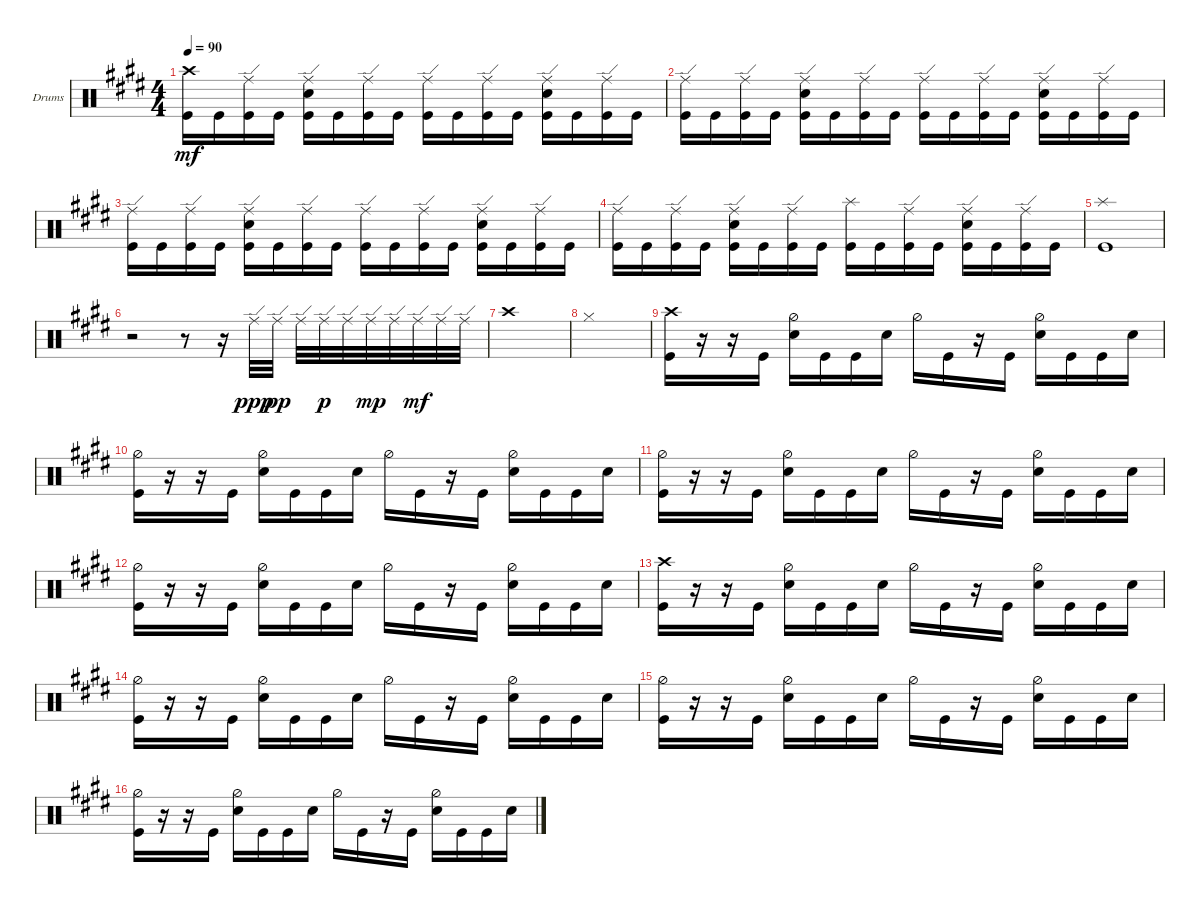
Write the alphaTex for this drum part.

\defaultSystemsLayout 4
\bracketExtendMode groupsimilarinstruments
\firstSystemTrackNameOrientation horizontal
\otherSystemsTrackNameOrientation horizontal
\track ("Drumkit" "Drums") {instrument percussion}
\staff {score}
\articulation defaults
\ts (4 4)
\tempo 90
\clef neutral
\ks e
("Kick (hit)" "Crash high (hit)").16{dy mf} "Kick (hit)".16 ("Ride (edge)" "Kick (hit)").16 "Kick (hit)".16 ("Kick (hit)" "Ride (edge)" "Snare (hit) 2").16 "Kick (hit)".16 ("Ride (edge)" "Kick (hit)").16 "Kick (hit)".16 ("Kick (hit)" "Ride (edge)").16 "Kick (hit)".16 ("Ride (edge)" "Kick (hit)").16 "Kick (hit)".16 ("Kick (hit)" "Ride (edge)" "Snare (hit) 2").16 "Kick (hit)".16 ("Ride (edge)" "Kick (hit)").16 "Kick (hit)".16 |
("Kick (hit)" "Ride (edge)").16 "Kick (hit)".16 ("Ride (edge)" "Kick (hit)").16 "Kick (hit)".16 ("Kick (hit)" "Ride (edge)" "Snare (hit) 2").16 "Kick (hit)".16 ("Ride (edge)" "Kick (hit)").16 "Kick (hit)".16 ("Kick (hit)" "Ride (edge)").16 "Kick (hit)".16 ("Ride (edge)" "Kick (hit)").16 "Kick (hit)".16 ("Kick (hit)" "Ride (edge)" "Snare (hit) 2").16 "Kick (hit)".16 ("Ride (edge)" "Kick (hit)").16 "Kick (hit)".16 |
("Kick (hit)" "Ride (edge)").16 "Kick (hit)".16 ("Ride (edge)" "Kick (hit)").16 "Kick (hit)".16 ("Kick (hit)" "Ride (edge)" "Snare (hit) 2").16 "Kick (hit)".16 ("Ride (edge)" "Kick (hit)").16 "Kick (hit)".16 ("Kick (hit)" "Ride (edge)").16 "Kick (hit)".16 ("Ride (edge)" "Kick (hit)").16 "Kick (hit)".16 ("Kick (hit)" "Ride (edge)" "Snare (hit) 2").16 "Kick (hit)".16 ("Ride (edge)" "Kick (hit)").16 "Kick (hit)".16 |
("Kick (hit)" "Ride (edge)").16 "Kick (hit)".16 ("Ride (edge)" "Kick (hit)").16 "Kick (hit)".16 ("Kick (hit)" "Ride (edge)" "Snare (hit) 2").16 "Kick (hit)".16 ("Ride (edge)" "Kick (hit)").16 "Kick (hit)".16 ("Kick (hit)" "Splash (hit)").16 "Kick (hit)".16 ("Ride (edge)" "Kick (hit)").16 "Kick (hit)".16 ("Kick (hit)" "Ride (edge)" "Snare (hit) 2").16 "Kick (hit)".16 ("Ride (edge)" "Kick (hit)").16 "Kick (hit)".16 |
("Splash (hit)" "Kick (hit)").1 |
r.2 r.8 r.16 "Ride (edge)".32{dy ppp} "Ride (edge)".32{dy pp} "Ride (edge)".32 "Ride (edge)".32{dy p} "Ride (edge)".32 "Ride (edge)".32{dy mp} "Ride (edge)".32 "Ride (edge)".32{dy mf} "Ride (edge)".32 "Ride (edge)".32 |
"Crash high (hit)".1 |
"Hi-Hat (closed)".1 |
("Kick (hit)" "Crash high (hit)").16 r.16 r.16 "Kick (hit)".16 ("Snare (hit) 2" "Hi-Hat (half)").16 "Kick (hit)".16 "Kick (hit)".16 "Snare (hit) 2".16 "Hi-Hat (half)".16 "Kick (hit)".16 r.16 "Kick (hit)".16 ("Snare (hit) 2" "Hi-Hat (half)").16 "Kick (hit)".16 "Kick (hit)".16 "Snare (hit) 2".16 |
("Kick (hit)" "Hi-Hat (half)").16 r.16 r.16 "Kick (hit)".16 ("Snare (hit) 2" "Hi-Hat (half)").16 "Kick (hit)".16 "Kick (hit)".16 "Snare (hit) 2".16 "Hi-Hat (half)".16 "Kick (hit)".16 r.16 "Kick (hit)".16 ("Snare (hit) 2" "Hi-Hat (half)").16 "Kick (hit)".16 "Kick (hit)".16 "Snare (hit) 2".16 |
("Kick (hit)" "Hi-Hat (half)").16 r.16 r.16 "Kick (hit)".16 ("Snare (hit) 2" "Hi-Hat (half)").16 "Kick (hit)".16 "Kick (hit)".16 "Snare (hit) 2".16 "Hi-Hat (half)".16 "Kick (hit)".16 r.16 "Kick (hit)".16 ("Snare (hit) 2" "Hi-Hat (half)").16 "Kick (hit)".16 "Kick (hit)".16 "Snare (hit) 2".16 |
("Kick (hit)" "Hi-Hat (half)").16 r.16 r.16 "Kick (hit)".16 ("Snare (hit) 2" "Hi-Hat (half)").16 "Kick (hit)".16 "Kick (hit)".16 "Snare (hit) 2".16 "Hi-Hat (half)".16 "Kick (hit)".16 r.16 "Kick (hit)".16 ("Snare (hit) 2" "Hi-Hat (half)").16 "Kick (hit)".16 "Kick (hit)".16 "Snare (hit) 2".16 |
("Kick (hit)" "Crash high (hit)").16 r.16 r.16 "Kick (hit)".16 ("Snare (hit) 2" "Hi-Hat (half)").16 "Kick (hit)".16 "Kick (hit)".16 "Snare (hit) 2".16 "Hi-Hat (half)".16 "Kick (hit)".16 r.16 "Kick (hit)".16 ("Snare (hit) 2" "Hi-Hat (half)").16 "Kick (hit)".16 "Kick (hit)".16 "Snare (hit) 2".16 |
("Kick (hit)" "Hi-Hat (half)").16 r.16 r.16 "Kick (hit)".16 ("Snare (hit) 2" "Hi-Hat (half)").16 "Kick (hit)".16 "Kick (hit)".16 "Snare (hit) 2".16 "Hi-Hat (half)".16 "Kick (hit)".16 r.16 "Kick (hit)".16 ("Snare (hit) 2" "Hi-Hat (half)").16 "Kick (hit)".16 "Kick (hit)".16 "Snare (hit) 2".16 |
("Kick (hit)" "Hi-Hat (half)").16 r.16 r.16 "Kick (hit)".16 ("Snare (hit) 2" "Hi-Hat (half)").16 "Kick (hit)".16 "Kick (hit)".16 "Snare (hit) 2".16 "Hi-Hat (half)".16 "Kick (hit)".16 r.16 "Kick (hit)".16 ("Snare (hit) 2" "Hi-Hat (half)").16 "Kick (hit)".16 "Kick (hit)".16 "Snare (hit) 2".16 |
("Kick (hit)" "Hi-Hat (half)").16 r.16 r.16 "Kick (hit)".16 ("Snare (hit) 2" "Hi-Hat (half)").16 "Kick (hit)".16 "Kick (hit)".16 "Snare (hit) 2".16 "Hi-Hat (half)".16 "Kick (hit)".16 r.16 "Kick (hit)".16 ("Snare (hit) 2" "Hi-Hat (half)").16 "Kick (hit)".16 "Kick (hit)".16 "Snare (hit) 2".16
